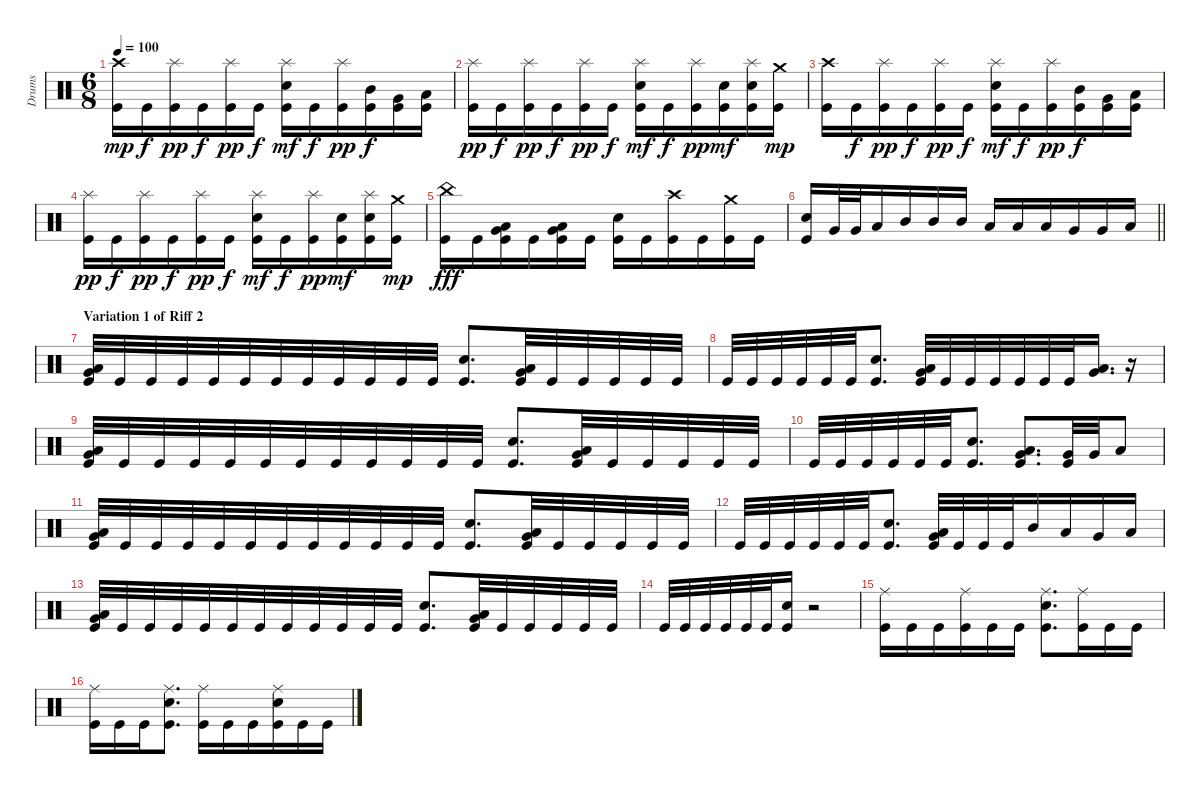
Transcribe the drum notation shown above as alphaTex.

\track ("Drums" "Drums") {instrument percussion}
\staff
\articulation defaults
\ts (6 8)
\tempo 100
\clef neutral
\ks c
("Crash high (hit)" "Kick (hit)").16{dy mp} "Kick (hit)".16{dy f} ("Splash (hit)" "Kick (hit)").16{dy pp} "Kick (hit)".16{dy f} ("Splash (hit)" "Kick (hit)").16{dy pp} "Kick (hit)".16{dy f} ("Splash (hit)" "Snare (hit) 2" "Kick (hit)").16{dy mf} "Kick (hit)".16{dy f} ("Splash (hit)" "Kick (hit)").16{dy pp} ("Mid Tom (hit)" "Kick (hit)").16{dy f} ("Very Low Tom (hit)" "Kick (hit)").16 ("Low Tom (hit)" "Kick (hit)").16 |
("Splash (hit)" "Kick (hit)").16{dy pp} "Kick (hit)".16{dy f} ("Splash (hit)" "Kick (hit)").16{dy pp} "Kick (hit)".16{dy f} ("Splash (hit)" "Kick (hit)").16{dy pp} "Kick (hit)".16{dy f} ("Splash (hit)" "Snare (hit) 2" "Kick (hit)").16{dy mf} "Kick (hit)".16{dy f} ("Splash (hit)" "Kick (hit)").16{dy pp} ("Snare (hit) 2" "Kick (hit)").16{dy mf} ("Splash (hit)" "Snare (hit) 2" "Kick (hit)").16 ("Crash medium (hit)" "Kick (hit)").16{dy mp} |
("Crash high (hit)" "Kick (hit)").16 "Kick (hit)".16{dy f} ("Splash (hit)" "Kick (hit)").16{dy pp} "Kick (hit)".16{dy f} ("Splash (hit)" "Kick (hit)").16{dy pp} "Kick (hit)".16{dy f} ("Splash (hit)" "Snare (hit) 2" "Kick (hit)").16{dy mf} "Kick (hit)".16{dy f} ("Splash (hit)" "Kick (hit)").16{dy pp} ("Mid Tom (hit)" "Kick (hit)").16{dy f} ("Very Low Tom (hit)" "Kick (hit)").16 ("Low Tom (hit)" "Kick (hit)").16 |
("Splash (hit)" "Kick (hit)").16{dy pp} "Kick (hit)".16{dy f} ("Splash (hit)" "Kick (hit)").16{dy pp} "Kick (hit)".16{dy f} ("Splash (hit)" "Kick (hit)").16{dy pp} "Kick (hit)".16{dy f} ("Splash (hit)" "Snare (hit) 2" "Kick (hit)").16{dy mf} "Kick (hit)".16{dy f} ("Splash (hit)" "Kick (hit)").16{dy pp} ("Snare (hit) 2" "Kick (hit)").16{dy mf} ("Splash (hit)" "Snare (hit) 2" "Kick (hit)").16 ("Crash medium (hit)" "Kick (hit)").16{dy mp} |
("China (hit)" "Kick (hit)").16{dy fff} "Kick (hit)".16 ("Low Tom (hit)" "Very Low Tom (hit)" "Kick (hit)").16 "Kick (hit)".16 ("Very Low Tom (hit)" "Low Floor Tom (hit)" "Kick (hit)").16 "Kick (hit)".16 ("Snare (hit) 2" "Kick (hit)").16 "Kick (hit)".16 ("Crash high (hit)" "Kick (hit)").16 "Kick (hit)".16 ("Crash medium (hit)" "Kick (hit)").16 "Kick (hit)".16 |
\barLineRight lightlight
("Snare (hit) 2" "Kick (hit)").16 "Very Low Tom (hit)".32 "Very Low Tom (hit)".32 "Low Floor Tom (hit)".16 "Mid Tom (hit)".16 "Mid Tom (hit)".16 "Mid Tom (hit)".16 "Low Tom (hit)".16 "Low Tom (hit)".16 "Low Tom (hit)".16 "Very Low Tom (hit)".16 "Very Low Tom (hit)".16 "Low Floor Tom (hit)".16 |
\section ("" "Variation 1 of Riff 2")
("Very Low Tom (hit)" "Low Floor Tom (hit)" "Kick (hit)").32 "Kick (hit)".32 "Kick (hit)".32 "Kick (hit)".32 "Kick (hit)".32 "Kick (hit)".32 "Kick (hit)".32 "Kick (hit)".32 "Kick (hit)".32 "Kick (hit)".32 "Kick (hit)".32 "Kick (hit)".32 ("Snare (hit) 2" "Kick (hit)").8{d} ("Very Low Tom (hit)" "Low Floor Tom (hit)" "Kick (hit)").32 "Kick (hit)".32 "Kick (hit)".32 "Kick (hit)".32 "Kick (hit)".32 "Kick (hit)".32 |
"Kick (hit)".32 "Kick (hit)".32 "Kick (hit)".32 "Kick (hit)".32 "Kick (hit)".32 "Kick (hit)".32 ("Snare (hit) 2" "Kick (hit)").8{d} ("Very Low Tom (hit)" "Low Floor Tom (hit)" "Kick (hit)").32 "Kick (hit)".32 "Kick (hit)".32 "Kick (hit)".32 "Kick (hit)".32 "Kick (hit)".32 "Kick (hit)".32 ("Very Low Tom (hit)" "Low Floor Tom (hit)").16{d} r.16 |
("Very Low Tom (hit)" "Low Floor Tom (hit)" "Kick (hit)").32 "Kick (hit)".32 "Kick (hit)".32 "Kick (hit)".32 "Kick (hit)".32 "Kick (hit)".32 "Kick (hit)".32 "Kick (hit)".32 "Kick (hit)".32 "Kick (hit)".32 "Kick (hit)".32 "Kick (hit)".32 ("Snare (hit) 2" "Kick (hit)").8{d} ("Very Low Tom (hit)" "Low Floor Tom (hit)" "Kick (hit)").32 "Kick (hit)".32 "Kick (hit)".32 "Kick (hit)".32 "Kick (hit)".32 "Kick (hit)".32 |
"Kick (hit)".32 "Kick (hit)".32 "Kick (hit)".32 "Kick (hit)".32 "Kick (hit)".32 "Kick (hit)".32 ("Snare (hit) 2" "Kick (hit)").8{d} ("Very Low Tom (hit)" "Low Floor Tom (hit)" "Kick (hit)").8{d} ("Very Low Tom (hit)" "Kick (hit)").32 "Very Low Tom (hit)".32 "Low Floor Tom (hit)".8 |
("Very Low Tom (hit)" "Low Floor Tom (hit)" "Kick (hit)").32 "Kick (hit)".32 "Kick (hit)".32 "Kick (hit)".32 "Kick (hit)".32 "Kick (hit)".32 "Kick (hit)".32 "Kick (hit)".32 "Kick (hit)".32 "Kick (hit)".32 "Kick (hit)".32 "Kick (hit)".32 ("Snare (hit) 2" "Kick (hit)").8{d} ("Very Low Tom (hit)" "Low Floor Tom (hit)" "Kick (hit)").32 "Kick (hit)".32 "Kick (hit)".32 "Kick (hit)".32 "Kick (hit)".32 "Kick (hit)".32 |
"Kick (hit)".32 "Kick (hit)".32 "Kick (hit)".32 "Kick (hit)".32 "Kick (hit)".32 "Kick (hit)".32 ("Snare (hit) 2" "Kick (hit)").8{d} ("Very Low Tom (hit)" "Low Floor Tom (hit)" "Kick (hit)").32 "Kick (hit)".32 "Kick (hit)".32 "Kick (hit)".32 "Mid Tom (hit)".16 "Low Tom (hit)".16 "Very Low Tom (hit)".16 "Low Floor Tom (hit)".16 |
("Very Low Tom (hit)" "Low Floor Tom (hit)" "Kick (hit)").32 "Kick (hit)".32 "Kick (hit)".32 "Kick (hit)".32 "Kick (hit)".32 "Kick (hit)".32 "Kick (hit)".32 "Kick (hit)".32 "Kick (hit)".32 "Kick (hit)".32 "Kick (hit)".32 "Kick (hit)".32 ("Snare (hit) 2" "Kick (hit)").8{d} ("Very Low Tom (hit)" "Low Floor Tom (hit)" "Kick (hit)").32 "Kick (hit)".32 "Kick (hit)".32 "Kick (hit)".32 "Kick (hit)".32 "Kick (hit)".32 |
"Kick (hit)".32 "Kick (hit)".32 "Kick (hit)".32 "Kick (hit)".32 "Kick (hit)".32 "Kick (hit)".32 ("Snare (hit) 2" "Kick (hit)").16 r.2 |
("Ride (middle)" "Kick (hit)").16 "Kick (hit)".16 "Kick (hit)".16 ("Ride (middle)" "Kick (hit)").16 "Kick (hit)".16 "Kick (hit)".16 ("Ride (middle)" "Snare (hit) 2" "Kick (hit)").8{d} ("Ride (middle)" "Kick (hit)").16 "Kick (hit)".16 "Kick (hit)".16 |
("Ride (middle)" "Kick (hit)").16 "Kick (hit)".16 "Kick (hit)".16 ("Ride (middle)" "Snare (hit) 2" "Kick (hit)").8{d} ("Ride (middle)" "Kick (hit)").16 "Kick (hit)".16 "Kick (hit)".16 ("Ride (middle)" "Snare (hit) 2" "Kick (hit)").16 "Kick (hit)".16 "Kick (hit)".16
